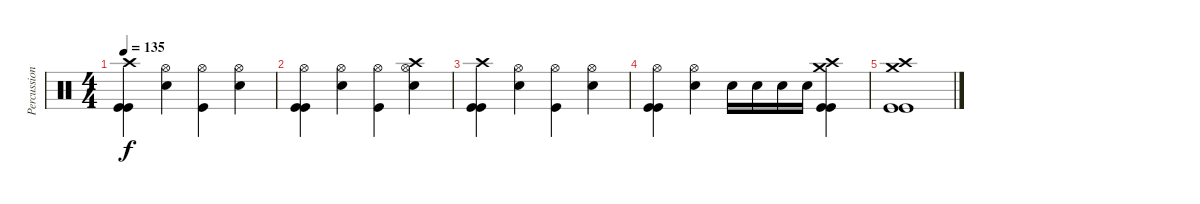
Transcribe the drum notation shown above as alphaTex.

\track ("Percussion" "Percussion") {instrument percussion}
\staff {score}
\articulation defaults
\ts (4 4)
\tempo 135
\clef neutral
\ks c
("Crash high (hit)" "Kick (hit)" "Kick (hit)").4{dy f} ("Hi-Hat (open)" "Electric Snare (hit)").4 ("Hi-Hat (open)" "Kick (hit)").4 ("Hi-Hat (open)" "Electric Snare (hit)").4 |
("Hi-Hat (open)" "Kick (hit)" "Kick (hit)").4 ("Hi-Hat (open)" "Electric Snare (hit)").4 ("Hi-Hat (open)" "Kick (hit)").4 ("Crash high (hit)" "Hi-Hat (open)" "Electric Snare (hit)").4 |
("Crash high (hit)" "Kick (hit)" "Kick (hit)").4 ("Hi-Hat (open)" "Electric Snare (hit)").4 ("Hi-Hat (open)" "Kick (hit)").4 ("Hi-Hat (open)" "Electric Snare (hit)").4 |
("Hi-Hat (open)" "Kick (hit)" "Kick (hit)").4 ("Hi-Hat (open)" "Electric Snare (hit)").4 "Electric Snare (hit)".16 "Electric Snare (hit)".16 "Electric Snare (hit)".16 "Electric Snare (hit)".16 ("Crash medium (hit)" "Crash high (hit)" "Kick (hit)" "Kick (hit)").4 |
("Crash medium (hit)" "Crash high (hit)" "Kick (hit)" "Kick (hit)").1
